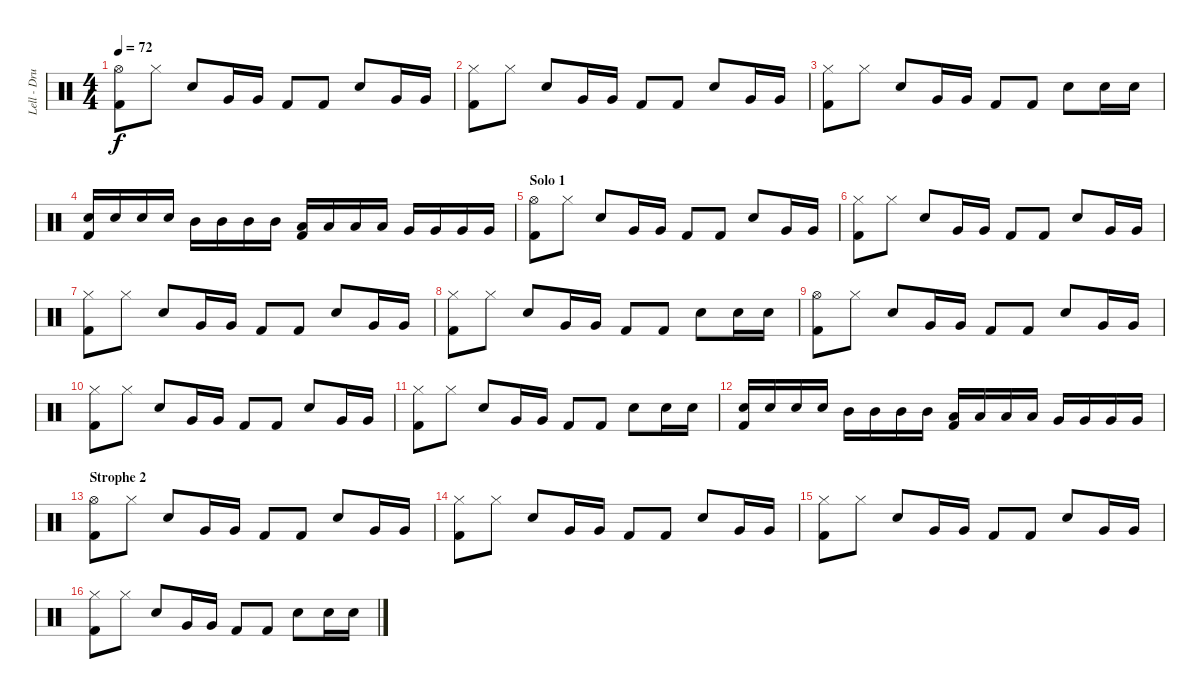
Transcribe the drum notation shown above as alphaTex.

\track ("Lell - Drums" "Lell - Dru") {instrument percussion}
\staff {score}
\articulation defaults
\ts (4 4)
\tempo 72
\clef neutral
\ks c
("Hi-Hat (open)" "Kick (hit) 2").8{dy f} "Hi-Hat (closed)".8 "Snare (hit) 2".8 "Very Low Tom (hit)".16 "Very Low Tom (hit)".16 "Kick (hit) 2".8 "Kick (hit) 2".8 "Snare (hit) 2".8 "Very Low Tom (hit)".16 "Very Low Tom (hit)".16 |
("Hi-Hat (closed)" "Kick (hit) 2").8 "Hi-Hat (closed)".8 "Snare (hit) 2".8 "Very Low Tom (hit)".16 "Very Low Tom (hit)".16 "Kick (hit) 2".8 "Kick (hit) 2".8 "Snare (hit) 2".8 "Very Low Tom (hit)".16 "Very Low Tom (hit)".16 |
("Hi-Hat (closed)" "Kick (hit) 2").8 "Hi-Hat (closed)".8 "Snare (hit) 2".8 "Very Low Tom (hit)".16 "Very Low Tom (hit)".16 "Kick (hit) 2".8 "Kick (hit) 2".8 "Snare (hit) 2".8 "Snare (hit) 2".16 "Snare (hit) 2".16 |
("Snare (hit) 2" "Kick (hit) 2").16 "Snare (hit) 2".16 "Snare (hit) 2".16 "Snare (hit) 2".16 "Mid Tom (hit)".16 "Mid Tom (hit)".16 "Mid Tom (hit)".16 "Mid Tom (hit)".16 ("Low Tom (hit)" "Kick (hit) 2").16 "Low Tom (hit)".16 "Low Tom (hit)".16 "Low Tom (hit)".16 "Very Low Tom (hit)".16 "Very Low Tom (hit)".16 "Very Low Tom (hit)".16 "Very Low Tom (hit)".16 |
\section ("" "Solo 1")
("Hi-Hat (open)" "Kick (hit) 2").8 "Hi-Hat (closed)".8 "Snare (hit) 2".8 "Very Low Tom (hit)".16 "Very Low Tom (hit)".16 "Kick (hit) 2".8 "Kick (hit) 2".8 "Snare (hit) 2".8 "Very Low Tom (hit)".16 "Very Low Tom (hit)".16 |
("Hi-Hat (closed)" "Kick (hit) 2").8 "Hi-Hat (closed)".8 "Snare (hit) 2".8 "Very Low Tom (hit)".16 "Very Low Tom (hit)".16 "Kick (hit) 2".8 "Kick (hit) 2".8 "Snare (hit) 2".8 "Very Low Tom (hit)".16 "Very Low Tom (hit)".16 |
("Hi-Hat (closed)" "Kick (hit) 2").8 "Hi-Hat (closed)".8 "Snare (hit) 2".8 "Very Low Tom (hit)".16 "Very Low Tom (hit)".16 "Kick (hit) 2".8 "Kick (hit) 2".8 "Snare (hit) 2".8 "Very Low Tom (hit)".16 "Very Low Tom (hit)".16 |
("Hi-Hat (closed)" "Kick (hit) 2").8 "Hi-Hat (closed)".8 "Snare (hit) 2".8 "Very Low Tom (hit)".16 "Very Low Tom (hit)".16 "Kick (hit) 2".8 "Kick (hit) 2".8 "Snare (hit) 2".8 "Snare (hit) 2".16 "Snare (hit) 2".16 |
("Hi-Hat (open)" "Kick (hit) 2").8 "Hi-Hat (closed)".8 "Snare (hit) 2".8 "Very Low Tom (hit)".16 "Very Low Tom (hit)".16 "Kick (hit) 2".8 "Kick (hit) 2".8 "Snare (hit) 2".8 "Very Low Tom (hit)".16 "Very Low Tom (hit)".16 |
("Hi-Hat (closed)" "Kick (hit) 2").8 "Hi-Hat (closed)".8 "Snare (hit) 2".8 "Very Low Tom (hit)".16 "Very Low Tom (hit)".16 "Kick (hit) 2".8 "Kick (hit) 2".8 "Snare (hit) 2".8 "Very Low Tom (hit)".16 "Very Low Tom (hit)".16 |
("Hi-Hat (closed)" "Kick (hit) 2").8 "Hi-Hat (closed)".8 "Snare (hit) 2".8 "Very Low Tom (hit)".16 "Very Low Tom (hit)".16 "Kick (hit) 2".8 "Kick (hit) 2".8 "Snare (hit) 2".8 "Snare (hit) 2".16 "Snare (hit) 2".16 |
("Snare (hit) 2" "Kick (hit) 2").16 "Snare (hit) 2".16 "Snare (hit) 2".16 "Snare (hit) 2".16 "Mid Tom (hit)".16 "Mid Tom (hit)".16 "Mid Tom (hit)".16 "Mid Tom (hit)".16 ("Low Tom (hit)" "Kick (hit) 2").16 "Low Tom (hit)".16 "Low Tom (hit)".16 "Low Tom (hit)".16 "Very Low Tom (hit)".16 "Very Low Tom (hit)".16 "Very Low Tom (hit)".16 "Very Low Tom (hit)".16 |
\section ("" "Strophe 2")
("Hi-Hat (open)" "Kick (hit) 2").8 "Hi-Hat (closed)".8 "Snare (hit) 2".8 "Very Low Tom (hit)".16 "Very Low Tom (hit)".16 "Kick (hit) 2".8 "Kick (hit) 2".8 "Snare (hit) 2".8 "Very Low Tom (hit)".16 "Very Low Tom (hit)".16 |
("Hi-Hat (closed)" "Kick (hit) 2").8 "Hi-Hat (closed)".8 "Snare (hit) 2".8 "Very Low Tom (hit)".16 "Very Low Tom (hit)".16 "Kick (hit) 2".8 "Kick (hit) 2".8 "Snare (hit) 2".8 "Very Low Tom (hit)".16 "Very Low Tom (hit)".16 |
("Hi-Hat (closed)" "Kick (hit) 2").8 "Hi-Hat (closed)".8 "Snare (hit) 2".8 "Very Low Tom (hit)".16 "Very Low Tom (hit)".16 "Kick (hit) 2".8 "Kick (hit) 2".8 "Snare (hit) 2".8 "Very Low Tom (hit)".16 "Very Low Tom (hit)".16 |
("Hi-Hat (closed)" "Kick (hit) 2").8 "Hi-Hat (closed)".8 "Snare (hit) 2".8 "Very Low Tom (hit)".16 "Very Low Tom (hit)".16 "Kick (hit) 2".8 "Kick (hit) 2".8 "Snare (hit) 2".8 "Snare (hit) 2".16 "Snare (hit) 2".16
